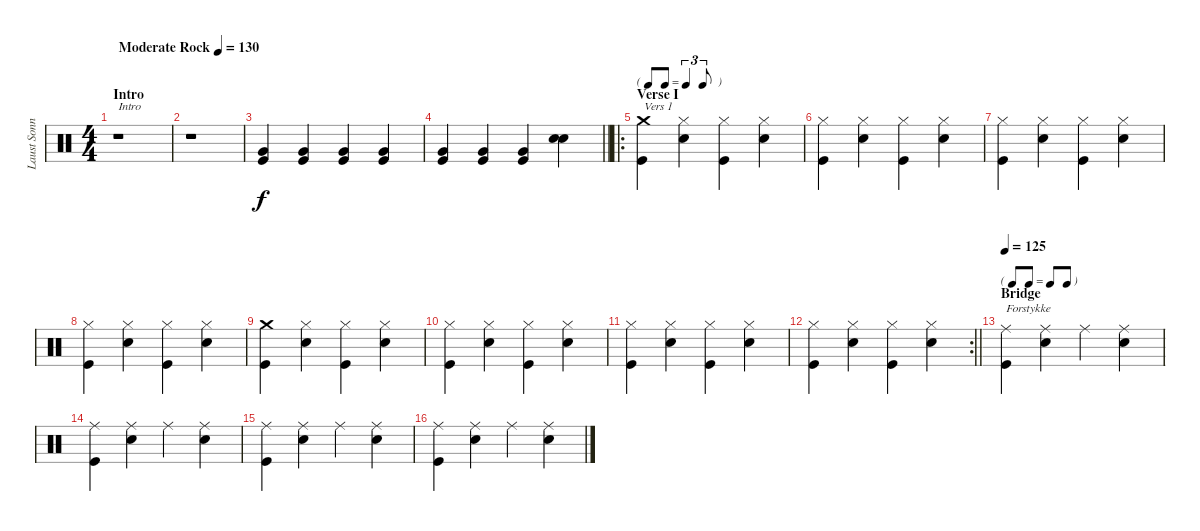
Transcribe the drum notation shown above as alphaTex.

\track ("Laust Sonne (Trommer)" "Laust Sonn") {instrument percussion}
\staff {score}
\articulation defaults
\ts (4 4)
\section ("" "Intro")
\tempo (130 "Moderate Rock")
\clef neutral
\ks c
r.1{txt "Intro" dy f} |
r.1 |
("Very Low Tom (hit)" "Kick (hit)").4 ("Very Low Tom (hit)" "Kick (hit)").4 ("Very Low Tom (hit)" "Kick (hit)").4 ("Very Low Tom (hit)" "Kick (hit)").4 |
\barLineRight lightlight
("Very Low Tom (hit)" "Kick (hit)").4 ("Very Low Tom (hit)" "Kick (hit)").4 ("Very Low Tom (hit)" "Kick (hit)").4 ("Snare (hit) 2" "Snare (hit) 2").4 |
\ro
\tf triplet8th
\section ("" "Verse I")
("Crash medium (hit)" "Kick (hit)").4{txt "Vers 1"} ("Hi-Hat (closed)" "Snare (hit) 2").4 ("Hi-Hat (closed)" "Kick (hit)").4 ("Hi-Hat (closed)" "Snare (hit) 2").4 |
("Hi-Hat (closed)" "Kick (hit)").4 ("Hi-Hat (closed)" "Snare (hit) 2").4 ("Hi-Hat (closed)" "Kick (hit)").4 ("Hi-Hat (closed)" "Snare (hit) 2").4 |
("Hi-Hat (closed)" "Kick (hit)").4 ("Hi-Hat (closed)" "Snare (hit) 2").4 ("Hi-Hat (closed)" "Kick (hit)").4 ("Hi-Hat (closed)" "Snare (hit) 2").4 |
("Hi-Hat (closed)" "Kick (hit)").4 ("Hi-Hat (closed)" "Snare (hit) 2").4 ("Hi-Hat (closed)" "Kick (hit)").4 ("Hi-Hat (closed)" "Snare (hit) 2").4 |
("Crash medium (hit)" "Kick (hit)").4 ("Hi-Hat (closed)" "Snare (hit) 2").4 ("Hi-Hat (closed)" "Kick (hit)").4 ("Hi-Hat (closed)" "Snare (hit) 2").4 |
("Hi-Hat (closed)" "Kick (hit)").4 ("Hi-Hat (closed)" "Snare (hit) 2").4 ("Hi-Hat (closed)" "Kick (hit)").4 ("Hi-Hat (closed)" "Snare (hit) 2").4 |
("Hi-Hat (closed)" "Kick (hit)").4 ("Hi-Hat (closed)" "Snare (hit) 2").4 ("Hi-Hat (closed)" "Kick (hit)").4 ("Hi-Hat (closed)" "Snare (hit) 2").4 |
\rc 2
\barLineRight lightlight
("Hi-Hat (closed)" "Kick (hit)").4 ("Hi-Hat (closed)" "Snare (hit) 2").4 ("Hi-Hat (closed)" "Kick (hit)").4 ("Hi-Hat (closed)" "Snare (hit) 2").4 |
\tf none
\section ("" "Bridge")
\tempo 125
("Ride (middle)" "Kick (hit)").4{txt "Forstykke"} ("Ride (middle)" "Snare (hit) 2").4 "Ride (middle)".4 ("Ride (middle)" "Snare (hit) 2").4 |
("Ride (middle)" "Kick (hit)").4 ("Ride (middle)" "Snare (hit) 2").4 "Ride (middle)".4 ("Ride (middle)" "Snare (hit) 2").4 |
("Ride (middle)" "Kick (hit)").4 ("Ride (middle)" "Snare (hit) 2").4 "Ride (middle)".4 ("Ride (middle)" "Snare (hit) 2").4 |
("Ride (middle)" "Kick (hit)").4 ("Ride (middle)" "Snare (hit) 2").4 "Ride (middle)".4 ("Ride (middle)" "Snare (hit) 2").4
